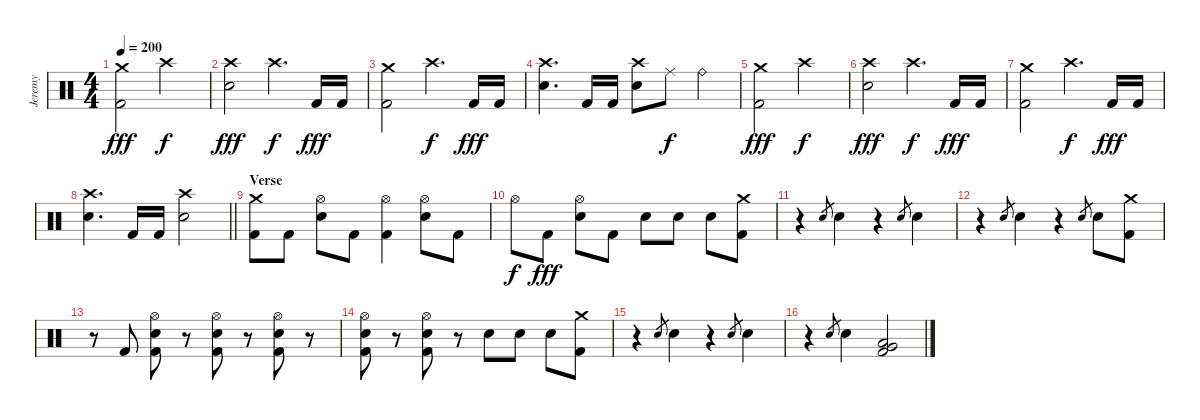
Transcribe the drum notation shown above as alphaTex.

\track ("Jeremy" "Jeremy") {instrument percussion}
\staff {score}
\articulation defaults
\ts (4 4)
\tempo 200
\clef neutral
\ks c
("Crash medium (hit)" "Kick (hit) 2").2{dy fff} "Crash high (hit)".2{dy f} |
("Crash high (hit)" "Electric Snare (hit)").2{dy fff} "Crash high (hit)".4{d dy f} "Kick (hit) 2".16{dy fff} "Kick (hit) 2".16 |
("Crash medium (hit)" "Kick (hit) 2").2 "Crash high (hit)".4{d dy f} "Kick (hit) 2".16{dy fff} "Kick (hit) 2".16 |
("Crash high (hit)" "Electric Snare (hit)").4{d} "Kick (hit) 2".16 "Kick (hit) 2".16 ("Crash high (hit)" "Electric Snare (hit)").8 "Ride (middle)".8{dy f} "Ride (bell)".4 |
("Crash medium (hit)" "Kick (hit) 2").2{dy fff} "Crash high (hit)".2{dy f} |
("Crash high (hit)" "Electric Snare (hit)").2{dy fff} "Crash high (hit)".4{d dy f} "Kick (hit) 2".16{dy fff} "Kick (hit) 2".16 |
("Crash medium (hit)" "Kick (hit) 2").2 "Crash high (hit)".4{d dy f} "Kick (hit) 2".16{dy fff} "Kick (hit) 2".16 |
\barLineRight lightlight
("Crash high (hit)" "Electric Snare (hit)").4{d} "Kick (hit) 2".16 "Kick (hit) 2".16 ("Crash high (hit)" "Electric Snare (hit)").2 |
\section ("" "Verse")
("Crash medium (hit)" "Kick (hit) 2").8 "Kick (hit) 2".8 ("Hi-Hat (open)" "Electric Snare (hit)").8 "Kick (hit) 2".8 ("Hi-Hat (open)" "Kick (hit) 2").4 ("Hi-Hat (open)" "Electric Snare (hit)").8 "Kick (hit) 2".8 |
"Hi-Hat (open)".8{dy f} "Kick (hit) 2".8{dy fff} ("Hi-Hat (open)" "Electric Snare (hit)").8 "Kick (hit) 2".8 "Electric Snare (hit)".8 "Electric Snare (hit)".8 "Electric Snare (hit)".8 ("Crash medium (hit)" "Kick (hit) 2").8 |
r.4 "Electric Snare (hit)".8{gr} "Electric Snare (hit)".4 r.4 "Electric Snare (hit)".8{gr} "Electric Snare (hit)".4 |
r.4 "Electric Snare (hit)".8{gr} "Electric Snare (hit)".4 r.4 "Electric Snare (hit)".8{gr} "Electric Snare (hit)".8 ("Crash medium (hit)" "Kick (hit) 2").8 |
r.8 "Kick (hit) 2".8 ("Hi-Hat (open)" "Electric Snare (hit)" "Kick (hit) 2").8 r.8 ("Hi-Hat (open)" "Electric Snare (hit)" "Kick (hit) 2").8 r.8 ("Hi-Hat (open)" "Electric Snare (hit)" "Kick (hit) 2").8 r.8 |
("Hi-Hat (open)" "Electric Snare (hit)" "Kick (hit) 2").8 r.8 ("Hi-Hat (open)" "Electric Snare (hit)" "Kick (hit) 2").8 r.8 "Electric Snare (hit)".8 "Electric Snare (hit)".8 "Electric Snare (hit)".8 ("Crash medium (hit)" "Kick (hit) 2").8 |
r.4 "Electric Snare (hit)".8{gr} "Electric Snare (hit)".4 r.4 "Electric Snare (hit)".8{gr} "Electric Snare (hit)".4 |
r.4 "Electric Snare (hit)".8{gr} "Electric Snare (hit)".4 ("Low Tom (hit)" "Very Low Tom (hit)" "Kick (hit) 2").2
